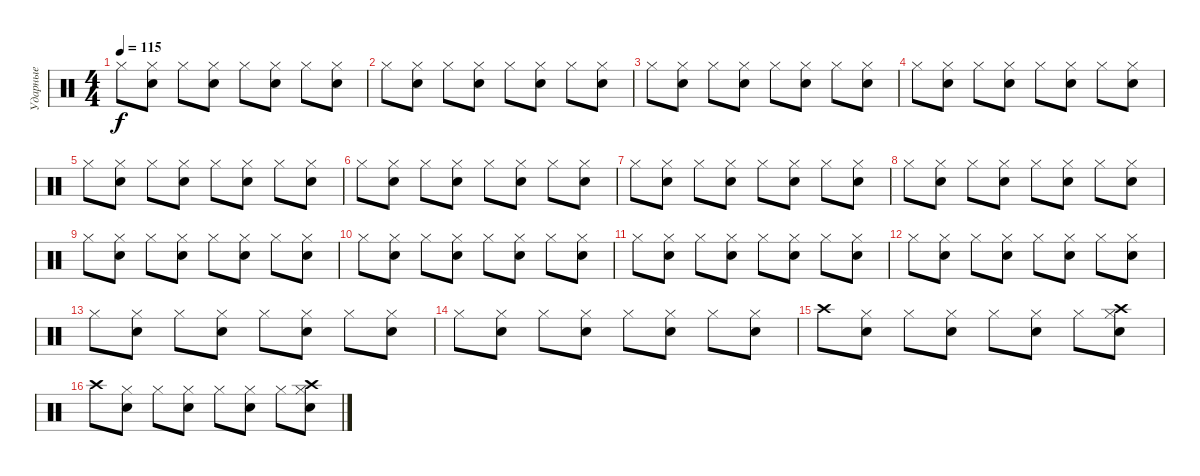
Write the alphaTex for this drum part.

\track ("Ударные" "Ударные") {instrument percussion}
\staff {score}
\articulation defaults
\ts (4 4)
\tempo 115
\clef neutral
\ks c "Hi-Hat (closed)".8{dy f}
("Hi-Hat (closed)" "Snare (hit) 2").8 "Hi-Hat (closed)".8 ("Hi-Hat (closed)" "Snare (hit) 2").8 "Hi-Hat (closed)".8 ("Hi-Hat (closed)" "Snare (hit) 2").8 "Hi-Hat (closed)".8 ("Hi-Hat (closed)" "Snare (hit) 2").8 |
"Hi-Hat (closed)".8 ("Hi-Hat (closed)" "Snare (hit) 2").8 "Hi-Hat (closed)".8 ("Hi-Hat (closed)" "Snare (hit) 2").8 "Hi-Hat (closed)".8 ("Hi-Hat (closed)" "Snare (hit) 2").8 "Hi-Hat (closed)".8 ("Hi-Hat (closed)" "Snare (hit) 2").8 |
"Hi-Hat (closed)".8 ("Hi-Hat (closed)" "Snare (hit) 2").8 "Hi-Hat (closed)".8 ("Hi-Hat (closed)" "Snare (hit) 2").8 "Hi-Hat (closed)".8 ("Hi-Hat (closed)" "Snare (hit) 2").8 "Hi-Hat (closed)".8 ("Hi-Hat (closed)" "Snare (hit) 2").8 |
"Hi-Hat (closed)".8 ("Hi-Hat (closed)" "Snare (hit) 2").8 "Hi-Hat (closed)".8 ("Hi-Hat (closed)" "Snare (hit) 2").8 "Hi-Hat (closed)".8 ("Hi-Hat (closed)" "Snare (hit) 2").8 "Hi-Hat (closed)".8 ("Hi-Hat (closed)" "Snare (hit) 2").8 |
"Hi-Hat (closed)".8 ("Hi-Hat (closed)" "Snare (hit) 2").8 "Hi-Hat (closed)".8 ("Hi-Hat (closed)" "Snare (hit) 2").8 "Hi-Hat (closed)".8 ("Hi-Hat (closed)" "Snare (hit) 2").8 "Hi-Hat (closed)".8 ("Hi-Hat (closed)" "Snare (hit) 2").8 |
"Hi-Hat (closed)".8 ("Hi-Hat (closed)" "Snare (hit) 2").8 "Hi-Hat (closed)".8 ("Hi-Hat (closed)" "Snare (hit) 2").8 "Hi-Hat (closed)".8 ("Hi-Hat (closed)" "Snare (hit) 2").8 "Hi-Hat (closed)".8 ("Hi-Hat (closed)" "Snare (hit) 2").8 |
"Hi-Hat (closed)".8 ("Hi-Hat (closed)" "Snare (hit) 2").8 "Hi-Hat (closed)".8 ("Hi-Hat (closed)" "Snare (hit) 2").8 "Hi-Hat (closed)".8 ("Hi-Hat (closed)" "Snare (hit) 2").8 "Hi-Hat (closed)".8 ("Hi-Hat (closed)" "Snare (hit) 2").8 |
"Hi-Hat (closed)".8 ("Hi-Hat (closed)" "Snare (hit) 2").8 "Hi-Hat (closed)".8 ("Hi-Hat (closed)" "Snare (hit) 2").8 "Hi-Hat (closed)".8 ("Hi-Hat (closed)" "Snare (hit) 2").8 "Hi-Hat (closed)".8 ("Hi-Hat (closed)" "Snare (hit) 2").8 |
"Hi-Hat (closed)".8 ("Hi-Hat (closed)" "Snare (hit) 2").8 "Hi-Hat (closed)".8 ("Hi-Hat (closed)" "Snare (hit) 2").8 "Hi-Hat (closed)".8 ("Hi-Hat (closed)" "Snare (hit) 2").8 "Hi-Hat (closed)".8 ("Hi-Hat (closed)" "Snare (hit) 2").8 |
"Hi-Hat (closed)".8 ("Hi-Hat (closed)" "Snare (hit) 2").8 "Hi-Hat (closed)".8 ("Hi-Hat (closed)" "Snare (hit) 2").8 "Hi-Hat (closed)".8 ("Hi-Hat (closed)" "Snare (hit) 2").8 "Hi-Hat (closed)".8 ("Hi-Hat (closed)" "Snare (hit) 2").8 |
"Hi-Hat (closed)".8 ("Hi-Hat (closed)" "Snare (hit) 2").8 "Hi-Hat (closed)".8 ("Hi-Hat (closed)" "Snare (hit) 2").8 "Hi-Hat (closed)".8 ("Hi-Hat (closed)" "Snare (hit) 2").8 "Hi-Hat (closed)".8 ("Hi-Hat (closed)" "Snare (hit) 2").8 |
"Hi-Hat (closed)".8 ("Hi-Hat (closed)" "Snare (hit) 2").8 "Hi-Hat (closed)".8 ("Hi-Hat (closed)" "Snare (hit) 2").8 "Hi-Hat (closed)".8 ("Hi-Hat (closed)" "Snare (hit) 2").8 "Hi-Hat (closed)".8 ("Hi-Hat (closed)" "Snare (hit) 2").8 |
"Hi-Hat (closed)".8 ("Hi-Hat (closed)" "Snare (hit) 2").8 "Hi-Hat (closed)".8 ("Hi-Hat (closed)" "Snare (hit) 2").8 "Hi-Hat (closed)".8 ("Hi-Hat (closed)" "Snare (hit) 2").8 "Hi-Hat (closed)".8 ("Hi-Hat (closed)" "Snare (hit) 2").8 |
"Hi-Hat (closed)".8 ("Hi-Hat (closed)" "Snare (hit) 2").8 "Hi-Hat (closed)".8 ("Hi-Hat (closed)" "Snare (hit) 2").8 "Hi-Hat (closed)".8 ("Hi-Hat (closed)" "Snare (hit) 2").8 "Hi-Hat (closed)".8 ("Hi-Hat (closed)" "Snare (hit) 2").8 |
"Crash high (hit)".8 ("Hi-Hat (closed)" "Snare (hit) 2").8 "Hi-Hat (closed)".8 ("Hi-Hat (closed)" "Snare (hit) 2").8 "Hi-Hat (closed)".8 ("Hi-Hat (closed)" "Snare (hit) 2").8 "Hi-Hat (closed)".8 ("Hi-Hat (closed)" "Snare (hit) 2" "Crash high (hit)").8 |
"Crash high (hit)".8 ("Hi-Hat (closed)" "Snare (hit) 2").8 "Hi-Hat (closed)".8 ("Hi-Hat (closed)" "Snare (hit) 2").8 "Hi-Hat (closed)".8 ("Hi-Hat (closed)" "Snare (hit) 2").8 "Hi-Hat (closed)".8 ("Hi-Hat (closed)" "Snare (hit) 2" "Crash high (hit)").8
